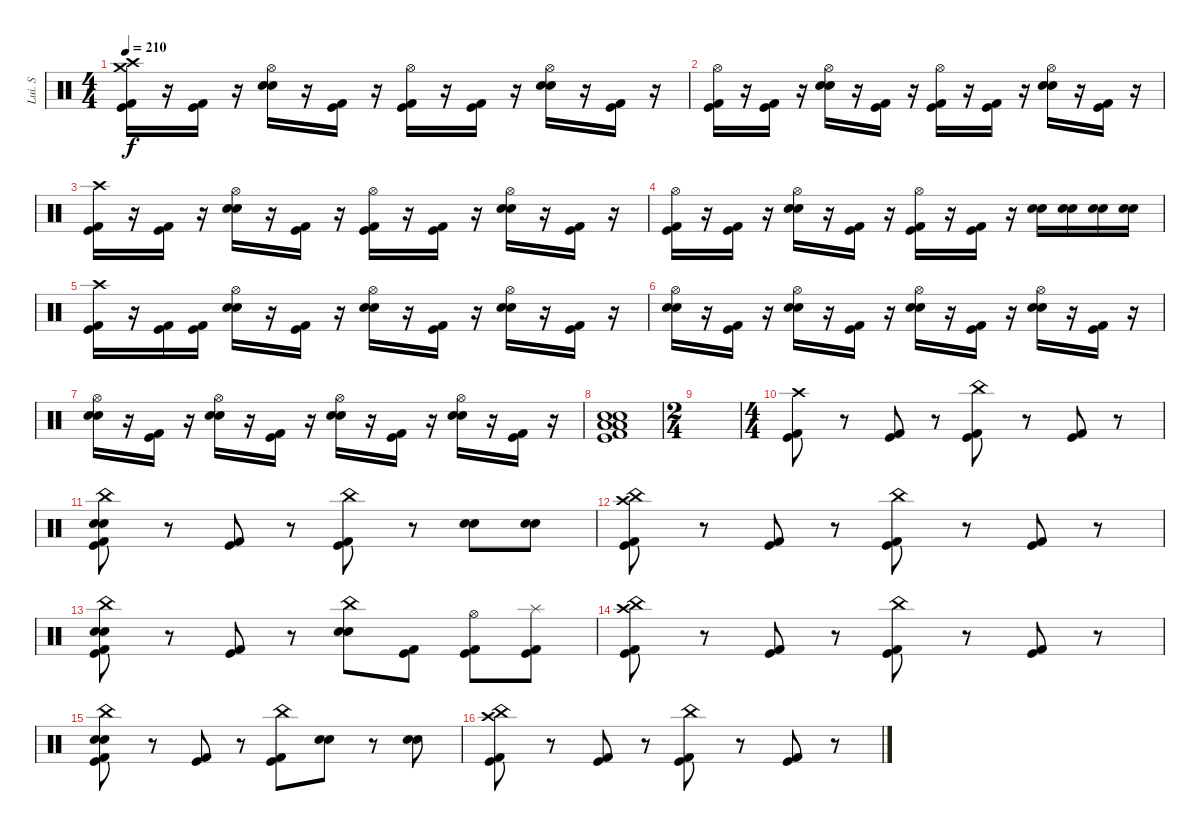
\track ("Lui. S" "Lui. S") {instrument percussion}
\staff {score}
\articulation defaults
\ts (4 4)
\tempo 210
\clef neutral
\ks c
("Crash high (hit)" "Crash medium (hit)" "Kick (hit)" "Kick (hit) 2").16{dy f} r.16 ("Kick (hit) 2" "Kick (hit)").16 r.16 ("Hi-Hat (open)" "Electric Snare (hit)" "Snare (hit) 2").16 r.16 ("Kick (hit) 2" "Kick (hit)").16 r.16 ("Hi-Hat (open)" "Kick (hit) 2" "Kick (hit)").16 r.16 ("Kick (hit) 2" "Kick (hit)").16 r.16 ("Hi-Hat (open)" "Electric Snare (hit)" "Snare (hit) 2").16 r.16 ("Kick (hit)" "Kick (hit) 2").16 r.16 |
("Hi-Hat (open)" "Kick (hit)" "Kick (hit) 2").16 r.16 ("Kick (hit) 2" "Kick (hit)").16 r.16 ("Hi-Hat (open)" "Electric Snare (hit)" "Snare (hit) 2").16 r.16 ("Kick (hit) 2" "Kick (hit)").16 r.16 ("Hi-Hat (open)" "Kick (hit) 2" "Kick (hit)").16 r.16 ("Kick (hit) 2" "Kick (hit)").16 r.16 ("Hi-Hat (open)" "Electric Snare (hit)" "Snare (hit) 2").16 r.16 ("Kick (hit)" "Kick (hit) 2").16 r.16 |
("Crash high (hit)" "Kick (hit)" "Kick (hit) 2").16 r.16 ("Kick (hit) 2" "Kick (hit)").16 r.16 ("Hi-Hat (open)" "Electric Snare (hit)" "Snare (hit) 2").16 r.16 ("Kick (hit) 2" "Kick (hit)").16 r.16 ("Hi-Hat (open)" "Kick (hit) 2" "Kick (hit)").16 r.16 ("Kick (hit) 2" "Kick (hit)").16 r.16 ("Hi-Hat (open)" "Electric Snare (hit)" "Snare (hit) 2").16 r.16 ("Kick (hit)" "Kick (hit) 2").16 r.16 |
("Hi-Hat (open)" "Kick (hit)" "Kick (hit) 2").16 r.16 ("Kick (hit) 2" "Kick (hit)").16 r.16 ("Hi-Hat (open)" "Electric Snare (hit)" "Snare (hit) 2").16 r.16 ("Kick (hit) 2" "Kick (hit)").16 r.16 ("Hi-Hat (open)" "Kick (hit) 2" "Kick (hit)").16 r.16 ("Kick (hit) 2" "Kick (hit)").16 r.16 ("Electric Snare (hit)" "Snare (hit) 2").16 ("Electric Snare (hit)" "Snare (hit) 2").16 ("Electric Snare (hit)" "Snare (hit) 2").16 ("Electric Snare (hit)" "Snare (hit) 2").16 |
("Crash high (hit)" "Kick (hit)" "Kick (hit) 2").16 r.16 ("Kick (hit) 2" "Kick (hit)").16 ("Kick (hit) 2" "Kick (hit)").16 ("Hi-Hat (open)" "Electric Snare (hit)" "Snare (hit) 2").16 r.16 ("Kick (hit) 2" "Kick (hit)").16 r.16 ("Hi-Hat (open)" "Electric Snare (hit)" "Snare (hit) 2").16 r.16 ("Kick (hit) 2" "Kick (hit)").16 r.16 ("Hi-Hat (open)" "Electric Snare (hit)" "Snare (hit) 2").16 r.16 ("Kick (hit) 2" "Kick (hit)").16 r.16 |
("Hi-Hat (open)" "Electric Snare (hit)" "Snare (hit) 2").16 r.16 ("Kick (hit) 2" "Kick (hit)").16 r.16 ("Hi-Hat (open)" "Electric Snare (hit)" "Snare (hit) 2").16 r.16 ("Kick (hit) 2" "Kick (hit)").16 r.16 ("Hi-Hat (open)" "Electric Snare (hit)" "Snare (hit) 2").16 r.16 ("Kick (hit) 2" "Kick (hit)").16 r.16 ("Hi-Hat (open)" "Snare (hit) 2" "Electric Snare (hit)").16 r.16 ("Kick (hit) 2" "Kick (hit)").16 r.16 |
("Hi-Hat (open)" "Electric Snare (hit)" "Snare (hit) 2").16 r.16 ("Kick (hit) 2" "Kick (hit)").16 r.16 ("Hi-Hat (open)" "Electric Snare (hit)" "Snare (hit) 2").16 r.16 ("Kick (hit) 2" "Kick (hit)").16 r.16 ("Hi-Hat (open)" "Electric Snare (hit)" "Snare (hit) 2").16 r.16 ("Kick (hit) 2" "Kick (hit)").16 r.16 ("Hi-Hat (open)" "Snare (hit) 2" "Electric Snare (hit)").16 r.16 ("Kick (hit) 2" "Kick (hit)").16 r.16 |
("Low Floor Tom (hit)" "Low Floor Tom (hit)" "Snare (hit) 2" "Electric Snare (hit)" "Kick (hit) 2" "Kick (hit)").1 |
\ts (2 4)
|
\ts (4 4)
("Crash high (hit)" "Kick (hit) 2" "Kick (hit)").8 r.8 ("Kick (hit) 2" "Kick (hit)").8 r.8 ("China (hit)" "Kick (hit) 2" "Kick (hit)").8 r.8 ("Kick (hit) 2" "Kick (hit)").8 r.8 |
("China (hit)" "Electric Snare (hit)" "Snare (hit) 2" "Kick (hit) 2" "Kick (hit)").8 r.8 ("Kick (hit) 2" "Kick (hit)").8 r.8 ("China (hit)" "Kick (hit) 2" "Kick (hit)").8 r.8 ("Electric Snare (hit)" "Snare (hit) 2").8 ("Electric Snare (hit)" "Snare (hit) 2").8 |
("Crash high (hit)" "China (hit)" "Kick (hit) 2" "Kick (hit)").8 r.8 ("Kick (hit) 2" "Kick (hit)").8 r.8 ("China (hit)" "Kick (hit) 2" "Kick (hit)").8 r.8 ("Kick (hit) 2" "Kick (hit)").8 r.8 |
("China (hit)" "Electric Snare (hit)" "Snare (hit) 2" "Kick (hit) 2" "Kick (hit)").8 r.8 ("Kick (hit) 2" "Kick (hit)").8 r.8 ("China (hit)" "Electric Snare (hit)" "Snare (hit) 2").8 ("Kick (hit) 2" "Kick (hit)").8 ("Hi-Hat (open)" "Kick (hit) 2" "Kick (hit)").8 ("Splash (hit)" "Kick (hit) 2" "Kick (hit)").8 |
("Crash high (hit)" "China (hit)" "Kick (hit) 2" "Kick (hit)").8 r.8 ("Kick (hit) 2" "Kick (hit)").8 r.8 ("China (hit)" "Kick (hit) 2" "Kick (hit)").8 r.8 ("Kick (hit) 2" "Kick (hit)").8 r.8 |
("China (hit)" "Electric Snare (hit)" "Snare (hit) 2" "Kick (hit) 2" "Kick (hit)").8 r.8 ("Kick (hit) 2" "Kick (hit)").8 r.8 ("China (hit)" "Kick (hit) 2" "Kick (hit)").8 ("Electric Snare (hit)" "Snare (hit) 2").8 r.8 ("Electric Snare (hit)" "Snare (hit) 2").8 |
("Crash high (hit)" "China (hit)" "Kick (hit) 2" "Kick (hit)").8 r.8 ("Kick (hit) 2" "Kick (hit)").8 r.8 ("China (hit)" "Kick (hit) 2" "Kick (hit)").8 r.8 ("Kick (hit) 2" "Kick (hit)").8 r.8
